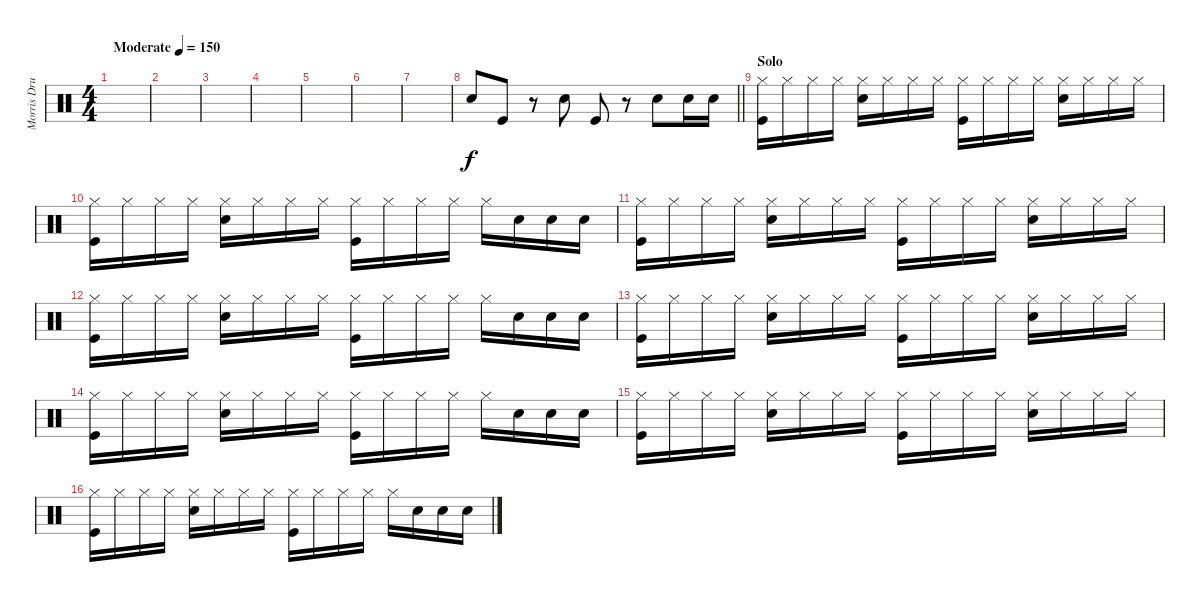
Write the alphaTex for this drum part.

\track ("Morris Drums" "Morris Dru") {instrument percussion}
\staff {score}
\articulation defaults
\ts (4 4)
\tempo (150 "Moderate")
\clef neutral
\ks c
|
|
|
|
|
|
|
\barLineRight lightlight "Snare (hit) 2".8 "Kick (hit)".8
r.8 "Snare (hit) 2".8 "Kick (hit)".8 r.8 "Snare (hit) 2".8 "Snare (hit) 2".16 "Snare (hit) 2".16 |
\section ("" "Solo")
("Hi-Hat (closed)" "Kick (hit)").16 "Hi-Hat (closed)".16 "Hi-Hat (closed)".16 "Hi-Hat (closed)".16 ("Hi-Hat (closed)" "Snare (hit) 2").16 "Hi-Hat (closed)".16 "Hi-Hat (closed)".16 "Hi-Hat (closed)".16 ("Hi-Hat (closed)" "Kick (hit)").16 "Hi-Hat (closed)".16 "Hi-Hat (closed)".16 "Hi-Hat (closed)".16 ("Hi-Hat (closed)" "Snare (hit) 2").16 "Hi-Hat (closed)".16 "Hi-Hat (closed)".16 "Hi-Hat (closed)".16 |
("Hi-Hat (closed)" "Kick (hit)").16 "Hi-Hat (closed)".16 "Hi-Hat (closed)".16 "Hi-Hat (closed)".16 ("Hi-Hat (closed)" "Snare (hit) 2").16 "Hi-Hat (closed)".16 "Hi-Hat (closed)".16 "Hi-Hat (closed)".16 ("Hi-Hat (closed)" "Kick (hit)").16 "Hi-Hat (closed)".16 "Hi-Hat (closed)".16 "Hi-Hat (closed)".16 "Hi-Hat (closed)".16 "Snare (hit) 2".16 "Snare (hit) 2".16 "Snare (hit) 2".16 |
("Hi-Hat (closed)" "Kick (hit)").16 "Hi-Hat (closed)".16 "Hi-Hat (closed)".16 "Hi-Hat (closed)".16 ("Hi-Hat (closed)" "Snare (hit) 2").16 "Hi-Hat (closed)".16 "Hi-Hat (closed)".16 "Hi-Hat (closed)".16 ("Hi-Hat (closed)" "Kick (hit)").16 "Hi-Hat (closed)".16 "Hi-Hat (closed)".16 "Hi-Hat (closed)".16 ("Hi-Hat (closed)" "Snare (hit) 2").16 "Hi-Hat (closed)".16 "Hi-Hat (closed)".16 "Hi-Hat (closed)".16 |
("Hi-Hat (closed)" "Kick (hit)").16 "Hi-Hat (closed)".16 "Hi-Hat (closed)".16 "Hi-Hat (closed)".16 ("Hi-Hat (closed)" "Snare (hit) 2").16 "Hi-Hat (closed)".16 "Hi-Hat (closed)".16 "Hi-Hat (closed)".16 ("Hi-Hat (closed)" "Kick (hit)").16 "Hi-Hat (closed)".16 "Hi-Hat (closed)".16 "Hi-Hat (closed)".16 "Hi-Hat (closed)".16 "Snare (hit) 2".16 "Snare (hit) 2".16 "Snare (hit) 2".16 |
("Hi-Hat (closed)" "Kick (hit)").16 "Hi-Hat (closed)".16 "Hi-Hat (closed)".16 "Hi-Hat (closed)".16 ("Hi-Hat (closed)" "Snare (hit) 2").16 "Hi-Hat (closed)".16 "Hi-Hat (closed)".16 "Hi-Hat (closed)".16 ("Hi-Hat (closed)" "Kick (hit)").16 "Hi-Hat (closed)".16 "Hi-Hat (closed)".16 "Hi-Hat (closed)".16 ("Hi-Hat (closed)" "Snare (hit) 2").16 "Hi-Hat (closed)".16 "Hi-Hat (closed)".16 "Hi-Hat (closed)".16 |
("Hi-Hat (closed)" "Kick (hit)").16 "Hi-Hat (closed)".16 "Hi-Hat (closed)".16 "Hi-Hat (closed)".16 ("Hi-Hat (closed)" "Snare (hit) 2").16 "Hi-Hat (closed)".16 "Hi-Hat (closed)".16 "Hi-Hat (closed)".16 ("Hi-Hat (closed)" "Kick (hit)").16 "Hi-Hat (closed)".16 "Hi-Hat (closed)".16 "Hi-Hat (closed)".16 "Hi-Hat (closed)".16 "Snare (hit) 2".16 "Snare (hit) 2".16 "Snare (hit) 2".16 |
("Hi-Hat (closed)" "Kick (hit)").16 "Hi-Hat (closed)".16 "Hi-Hat (closed)".16 "Hi-Hat (closed)".16 ("Hi-Hat (closed)" "Snare (hit) 2").16 "Hi-Hat (closed)".16 "Hi-Hat (closed)".16 "Hi-Hat (closed)".16 ("Hi-Hat (closed)" "Kick (hit)").16 "Hi-Hat (closed)".16 "Hi-Hat (closed)".16 "Hi-Hat (closed)".16 ("Hi-Hat (closed)" "Snare (hit) 2").16 "Hi-Hat (closed)".16 "Hi-Hat (closed)".16 "Hi-Hat (closed)".16 |
("Hi-Hat (closed)" "Kick (hit)").16 "Hi-Hat (closed)".16 "Hi-Hat (closed)".16 "Hi-Hat (closed)".16 ("Hi-Hat (closed)" "Snare (hit) 2").16 "Hi-Hat (closed)".16 "Hi-Hat (closed)".16 "Hi-Hat (closed)".16 ("Hi-Hat (closed)" "Kick (hit)").16 "Hi-Hat (closed)".16 "Hi-Hat (closed)".16 "Hi-Hat (closed)".16 "Hi-Hat (closed)".16 "Snare (hit) 2".16 "Snare (hit) 2".16 "Snare (hit) 2".16
